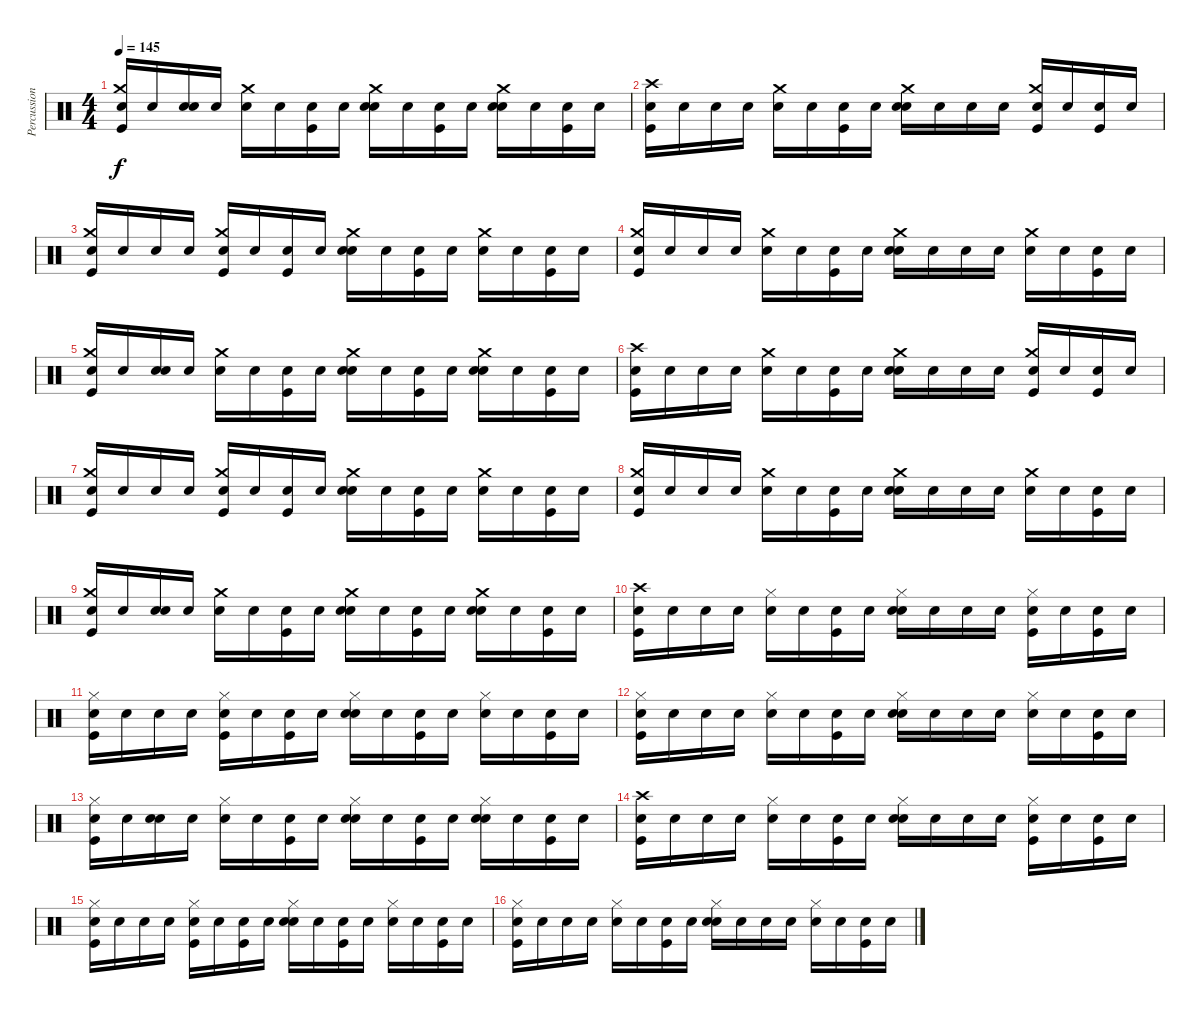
\track ("Percussion" "Percussion") {instrument percussion}
\staff {score}
\articulation defaults
\ts (4 4)
\tempo 145
\clef neutral
\ks c
("Snare (hit)" "Crash medium (hit)" "Kick (hit)").16{dy f} "Snare (hit)".16 ("Snare (hit)" "Snare (hit) 2").16 "Snare (hit)".16 ("Snare (hit)" "Crash medium (hit)").16 "Snare (hit)".16 ("Snare (hit)" "Kick (hit)").16 "Snare (hit)".16 ("Snare (hit)" "Snare (hit) 2" "Crash medium (hit)").16 "Snare (hit)".16 ("Snare (hit)" "Kick (hit)").16 "Snare (hit)".16 ("Snare (hit)" "Snare (hit) 2" "Crash medium (hit)").16 "Snare (hit)".16 ("Snare (hit)" "Kick (hit)").16 "Snare (hit)".16 |
("Snare (hit)" "Crash high (hit)" "Kick (hit)").16 "Snare (hit)".16 "Snare (hit)".16 "Snare (hit)".16 ("Snare (hit)" "Crash medium (hit)").16 "Snare (hit)".16 ("Snare (hit)" "Kick (hit)").16 "Snare (hit)".16 ("Snare (hit)" "Crash medium (hit)" "Snare (hit) 2").16 "Snare (hit)".16 "Snare (hit)".16 "Snare (hit)".16 ("Snare (hit)" "Crash medium (hit)" "Kick (hit)").16 "Snare (hit)".16 ("Snare (hit)" "Kick (hit)").16 "Snare (hit)".16 |
("Snare (hit)" "Crash medium (hit)" "Kick (hit)").16 "Snare (hit)".16 "Snare (hit)".16 "Snare (hit)".16 ("Snare (hit)" "Crash medium (hit)" "Kick (hit)").16 "Snare (hit)".16 ("Snare (hit)" "Kick (hit)").16 "Snare (hit)".16 ("Snare (hit)" "Crash medium (hit)" "Snare (hit) 2").16 "Snare (hit)".16 ("Snare (hit)" "Kick (hit)").16 "Snare (hit)".16 ("Snare (hit)" "Crash medium (hit)").16 "Snare (hit)".16 ("Snare (hit)" "Kick (hit)").16 "Snare (hit)".16 |
("Snare (hit)" "Crash medium (hit)" "Kick (hit)").16 "Snare (hit)".16 "Snare (hit)".16 "Snare (hit)".16 ("Snare (hit)" "Crash medium (hit)").16 "Snare (hit)".16 ("Snare (hit)" "Kick (hit)").16 "Snare (hit)".16 ("Snare (hit)" "Crash medium (hit)" "Snare (hit) 2").16 "Snare (hit)".16 "Snare (hit)".16 "Snare (hit)".16 ("Snare (hit)" "Crash medium (hit)").16 "Snare (hit)".16 ("Snare (hit)" "Kick (hit)").16 "Snare (hit)".16 |
("Snare (hit)" "Crash medium (hit)" "Kick (hit)").16 "Snare (hit)".16 ("Snare (hit)" "Snare (hit) 2").16 "Snare (hit)".16 ("Snare (hit)" "Crash medium (hit)").16 "Snare (hit)".16 ("Snare (hit)" "Kick (hit)").16 "Snare (hit)".16 ("Snare (hit)" "Snare (hit) 2" "Crash medium (hit)").16 "Snare (hit)".16 ("Snare (hit)" "Kick (hit)").16 "Snare (hit)".16 ("Snare (hit)" "Snare (hit) 2" "Crash medium (hit)").16 "Snare (hit)".16 ("Snare (hit)" "Kick (hit)").16 "Snare (hit)".16 |
("Snare (hit)" "Crash high (hit)" "Kick (hit)").16 "Snare (hit)".16 "Snare (hit)".16 "Snare (hit)".16 ("Snare (hit)" "Crash medium (hit)").16 "Snare (hit)".16 ("Snare (hit)" "Kick (hit)").16 "Snare (hit)".16 ("Snare (hit)" "Crash medium (hit)" "Snare (hit) 2").16 "Snare (hit)".16 "Snare (hit)".16 "Snare (hit)".16 ("Snare (hit)" "Crash medium (hit)" "Kick (hit)").16 "Snare (hit)".16 ("Snare (hit)" "Kick (hit)").16 "Snare (hit)".16 |
("Snare (hit)" "Crash medium (hit)" "Kick (hit)").16 "Snare (hit)".16 "Snare (hit)".16 "Snare (hit)".16 ("Snare (hit)" "Crash medium (hit)" "Kick (hit)").16 "Snare (hit)".16 ("Snare (hit)" "Kick (hit)").16 "Snare (hit)".16 ("Snare (hit)" "Crash medium (hit)" "Snare (hit) 2").16 "Snare (hit)".16 ("Snare (hit)" "Kick (hit)").16 "Snare (hit)".16 ("Snare (hit)" "Crash medium (hit)").16 "Snare (hit)".16 ("Snare (hit)" "Kick (hit)").16 "Snare (hit)".16 |
("Snare (hit)" "Crash medium (hit)" "Kick (hit)").16 "Snare (hit)".16 "Snare (hit)".16 "Snare (hit)".16 ("Snare (hit)" "Crash medium (hit)").16 "Snare (hit)".16 ("Snare (hit)" "Kick (hit)").16 "Snare (hit)".16 ("Snare (hit)" "Crash medium (hit)" "Snare (hit) 2").16 "Snare (hit)".16 "Snare (hit)".16 "Snare (hit)".16 ("Snare (hit)" "Crash medium (hit)").16 "Snare (hit)".16 ("Snare (hit)" "Kick (hit)").16 "Snare (hit)".16 |
("Snare (hit)" "Crash medium (hit)" "Kick (hit)").16 "Snare (hit)".16 ("Snare (hit)" "Snare (hit) 2").16 "Snare (hit)".16 ("Snare (hit)" "Crash medium (hit)").16 "Snare (hit)".16 ("Snare (hit)" "Kick (hit)").16 "Snare (hit)".16 ("Snare (hit)" "Snare (hit) 2" "Crash medium (hit)").16 "Snare (hit)".16 ("Snare (hit)" "Kick (hit)").16 "Snare (hit)".16 ("Snare (hit)" "Snare (hit) 2" "Crash medium (hit)").16 "Snare (hit)".16 ("Snare (hit)" "Kick (hit)").16 "Snare (hit)".16 |
("Snare (hit)" "Crash high (hit)" "Kick (hit)").16 "Snare (hit)".16 "Snare (hit)".16 "Snare (hit)".16 ("Snare (hit)" "Hi-Hat (closed)").16 "Snare (hit)".16 ("Snare (hit)" "Kick (hit)").16 "Snare (hit)".16 ("Snare (hit)" "Hi-Hat (closed)" "Snare (hit) 2").16 "Snare (hit)".16 "Snare (hit)".16 "Snare (hit)".16 ("Snare (hit)" "Hi-Hat (closed)" "Kick (hit)").16 "Snare (hit)".16 ("Snare (hit)" "Kick (hit)").16 "Snare (hit)".16 |
("Snare (hit)" "Hi-Hat (closed)" "Kick (hit)").16 "Snare (hit)".16 "Snare (hit)".16 "Snare (hit)".16 ("Snare (hit)" "Hi-Hat (closed)" "Kick (hit)").16 "Snare (hit)".16 ("Snare (hit)" "Kick (hit)").16 "Snare (hit)".16 ("Snare (hit)" "Hi-Hat (closed)" "Snare (hit) 2").16 "Snare (hit)".16 ("Snare (hit)" "Kick (hit)").16 "Snare (hit)".16 ("Snare (hit)" "Hi-Hat (closed)").16 "Snare (hit)".16 ("Snare (hit)" "Kick (hit)").16 "Snare (hit)".16 |
("Snare (hit)" "Hi-Hat (closed)" "Kick (hit)").16 "Snare (hit)".16 "Snare (hit)".16 "Snare (hit)".16 ("Snare (hit)" "Hi-Hat (closed)").16 "Snare (hit)".16 ("Snare (hit)" "Kick (hit)").16 "Snare (hit)".16 ("Snare (hit)" "Hi-Hat (closed)" "Snare (hit) 2").16 "Snare (hit)".16 "Snare (hit)".16 "Snare (hit)".16 ("Snare (hit)" "Hi-Hat (closed)").16 "Snare (hit)".16 ("Snare (hit)" "Kick (hit)").16 "Snare (hit)".16 |
("Snare (hit)" "Hi-Hat (closed)" "Kick (hit)").16 "Snare (hit)".16 ("Snare (hit)" "Snare (hit) 2").16 "Snare (hit)".16 ("Snare (hit)" "Hi-Hat (closed)").16 "Snare (hit)".16 ("Snare (hit)" "Kick (hit)").16 "Snare (hit)".16 ("Snare (hit)" "Snare (hit) 2" "Hi-Hat (closed)").16 "Snare (hit)".16 ("Snare (hit)" "Kick (hit)").16 "Snare (hit)".16 ("Snare (hit)" "Snare (hit) 2" "Hi-Hat (closed)").16 "Snare (hit)".16 ("Snare (hit)" "Kick (hit)").16 "Snare (hit)".16 |
("Snare (hit)" "Crash high (hit)" "Kick (hit)").16 "Snare (hit)".16 "Snare (hit)".16 "Snare (hit)".16 ("Snare (hit)" "Hi-Hat (closed)").16 "Snare (hit)".16 ("Snare (hit)" "Kick (hit)").16 "Snare (hit)".16 ("Snare (hit)" "Hi-Hat (closed)" "Snare (hit) 2").16 "Snare (hit)".16 "Snare (hit)".16 "Snare (hit)".16 ("Snare (hit)" "Hi-Hat (closed)" "Kick (hit)").16 "Snare (hit)".16 ("Snare (hit)" "Kick (hit)").16 "Snare (hit)".16 |
("Snare (hit)" "Hi-Hat (closed)" "Kick (hit)").16 "Snare (hit)".16 "Snare (hit)".16 "Snare (hit)".16 ("Snare (hit)" "Hi-Hat (closed)" "Kick (hit)").16 "Snare (hit)".16 ("Snare (hit)" "Kick (hit)").16 "Snare (hit)".16 ("Snare (hit)" "Hi-Hat (closed)" "Snare (hit) 2").16 "Snare (hit)".16 ("Snare (hit)" "Kick (hit)").16 "Snare (hit)".16 ("Snare (hit)" "Hi-Hat (closed)").16 "Snare (hit)".16 ("Snare (hit)" "Kick (hit)").16 "Snare (hit)".16 |
("Snare (hit)" "Hi-Hat (closed)" "Kick (hit)").16 "Snare (hit)".16 "Snare (hit)".16 "Snare (hit)".16 ("Snare (hit)" "Hi-Hat (closed)").16 "Snare (hit)".16 ("Snare (hit)" "Kick (hit)").16 "Snare (hit)".16 ("Snare (hit)" "Hi-Hat (closed)" "Snare (hit) 2").16 "Snare (hit)".16 "Snare (hit)".16 "Snare (hit)".16 ("Snare (hit)" "Hi-Hat (closed)").16 "Snare (hit)".16 ("Snare (hit)" "Kick (hit)").16 "Snare (hit)".16
